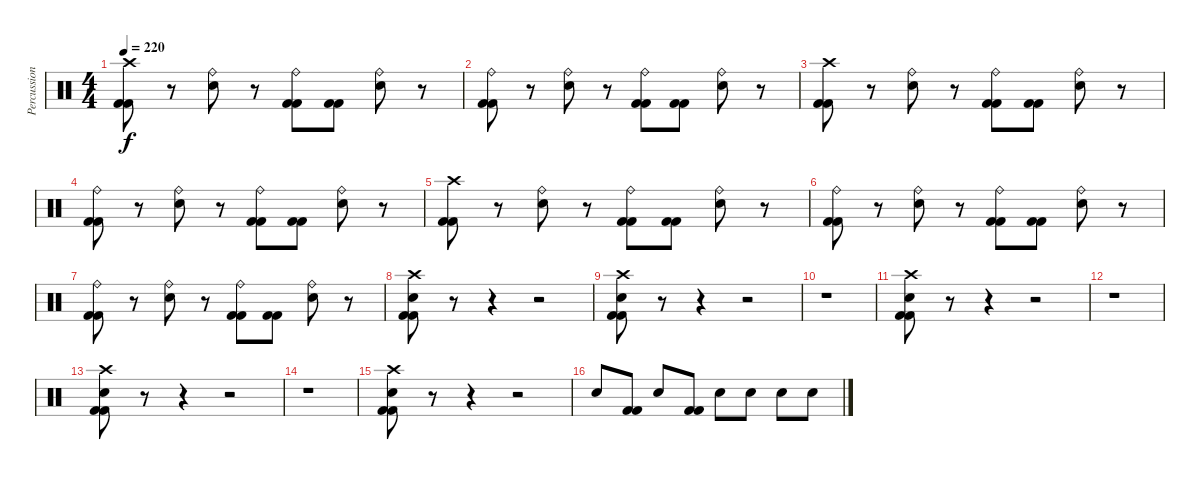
\track ("Percussion" "Percussion") {instrument percussion}
\staff {score}
\articulation defaults
\ts (4 4)
\tempo 220
\clef neutral
\ks c
("Crash high (hit)" "Kick (hit) 2" "Kick (hit) 2").8{dy f} r.8 ("Ride (bell)" "Electric Snare (hit)").8 r.8 ("Ride (bell)" "Kick (hit) 2" "Kick (hit) 2").8 ("Kick (hit) 2" "Kick (hit) 2").8 ("Ride (bell)" "Electric Snare (hit)").8 r.8 |
("Ride (bell)" "Kick (hit) 2" "Kick (hit) 2").8 r.8 ("Ride (bell)" "Electric Snare (hit)").8 r.8 ("Ride (bell)" "Kick (hit) 2" "Kick (hit) 2").8 ("Kick (hit) 2" "Kick (hit) 2").8 ("Ride (bell)" "Electric Snare (hit)").8 r.8 |
("Crash high (hit)" "Kick (hit) 2" "Kick (hit) 2").8 r.8 ("Ride (bell)" "Electric Snare (hit)").8 r.8 ("Ride (bell)" "Kick (hit) 2" "Kick (hit) 2").8 ("Kick (hit) 2" "Kick (hit) 2").8 ("Ride (bell)" "Electric Snare (hit)").8 r.8 |
("Ride (bell)" "Kick (hit) 2" "Kick (hit) 2").8 r.8 ("Ride (bell)" "Electric Snare (hit)").8 r.8 ("Ride (bell)" "Kick (hit) 2" "Kick (hit) 2").8 ("Kick (hit) 2" "Kick (hit) 2").8 ("Ride (bell)" "Electric Snare (hit)").8 r.8 |
("Crash high (hit)" "Kick (hit) 2" "Kick (hit) 2").8 r.8 ("Ride (bell)" "Electric Snare (hit)").8 r.8 ("Ride (bell)" "Kick (hit) 2" "Kick (hit) 2").8 ("Kick (hit) 2" "Kick (hit) 2").8 ("Ride (bell)" "Electric Snare (hit)").8 r.8 |
("Ride (bell)" "Kick (hit) 2" "Kick (hit) 2").8 r.8 ("Ride (bell)" "Electric Snare (hit)").8 r.8 ("Ride (bell)" "Kick (hit) 2" "Kick (hit) 2").8 ("Kick (hit) 2" "Kick (hit) 2").8 ("Ride (bell)" "Electric Snare (hit)").8 r.8 |
("Ride (bell)" "Kick (hit) 2" "Kick (hit) 2").8 r.8 ("Ride (bell)" "Electric Snare (hit)").8 r.8 ("Ride (bell)" "Kick (hit) 2" "Kick (hit) 2").8 ("Kick (hit) 2" "Kick (hit) 2").8 ("Ride (bell)" "Electric Snare (hit)").8 r.8 |
("Crash high (hit)" "Electric Snare (hit)" "Kick (hit) 2" "Kick (hit) 2").8 r.8 r.4 r.2 |
("Crash high (hit)" "Electric Snare (hit)" "Kick (hit) 2" "Kick (hit) 2").8 r.8 r.4 r.2 |
r.1 |
("Crash high (hit)" "Electric Snare (hit)" "Kick (hit) 2" "Kick (hit) 2").8 r.8 r.4 r.2 |
r.1 |
("Crash high (hit)" "Electric Snare (hit)" "Kick (hit) 2" "Kick (hit) 2").8 r.8 r.4 r.2 |
r.1 |
("Crash high (hit)" "Electric Snare (hit)" "Kick (hit) 2" "Kick (hit) 2").8 r.8 r.4 r.2 |
"Electric Snare (hit)".8 ("Kick (hit) 2" "Kick (hit) 2").8 "Electric Snare (hit)".8 ("Kick (hit) 2" "Kick (hit) 2").8 "Electric Snare (hit)".8 "Electric Snare (hit)".8 "Electric Snare (hit)".8 "Electric Snare (hit)".8
